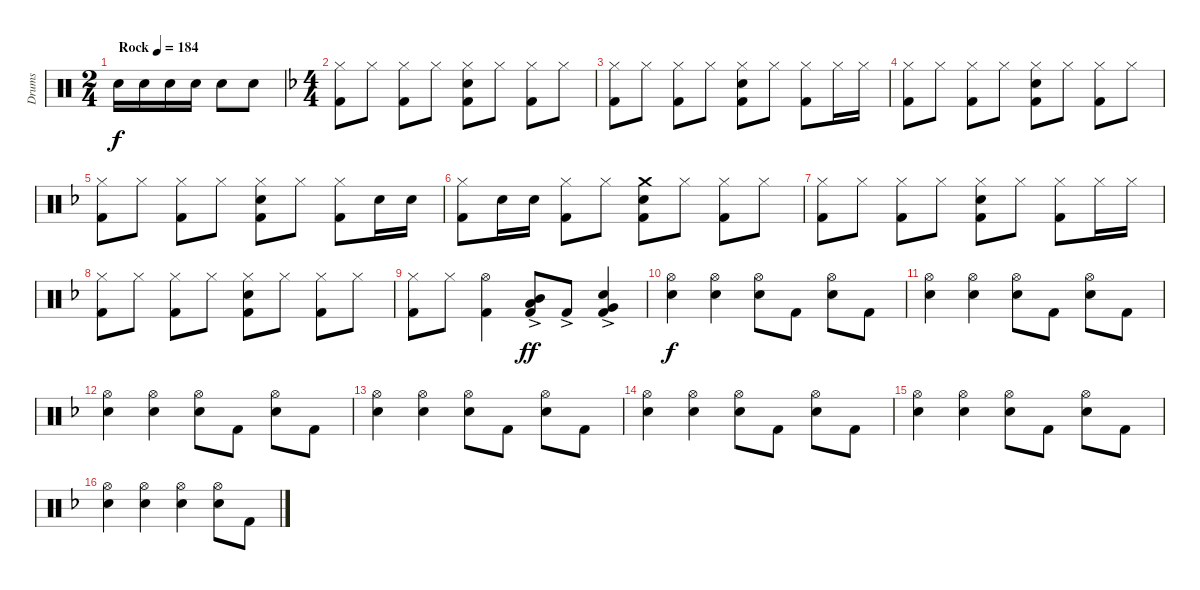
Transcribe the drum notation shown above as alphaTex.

\track ("Drums" "Drums") {instrument percussion}
\staff {score}
\articulation defaults
\ts (2 4)
\tempo (184 "Rock")
\clef neutral
\ks c "Electric Snare (hit)".16{dy f} "Electric Snare (hit)".16 "Electric Snare (hit)".16 "Electric Snare (hit)".16 "Electric Snare (hit)".8 "Electric Snare (hit)".8
|
\ts (4 4)
\ks f
("Hi-Hat (closed)" "Kick (hit) 2").8 "Hi-Hat (closed)".8 ("Hi-Hat (closed)" "Kick (hit) 2").8 "Hi-Hat (closed)".8 ("Hi-Hat (closed)" "Electric Snare (hit)" "Kick (hit) 2").8 "Hi-Hat (closed)".8 ("Hi-Hat (closed)" "Kick (hit) 2").8 "Hi-Hat (closed)".8 |
("Hi-Hat (closed)" "Kick (hit) 2").8 "Hi-Hat (closed)".8 ("Hi-Hat (closed)" "Kick (hit) 2").8 "Hi-Hat (closed)".8 ("Hi-Hat (closed)" "Electric Snare (hit)" "Kick (hit) 2").8 "Hi-Hat (closed)".8 ("Hi-Hat (closed)" "Kick (hit) 2").8 "Hi-Hat (closed)".16 "Hi-Hat (closed)".16 |
("Hi-Hat (closed)" "Kick (hit) 2").8 "Hi-Hat (closed)".8 ("Hi-Hat (closed)" "Kick (hit) 2").8 "Hi-Hat (closed)".8 ("Hi-Hat (closed)" "Electric Snare (hit)" "Kick (hit) 2").8 "Hi-Hat (closed)".8 ("Hi-Hat (closed)" "Kick (hit) 2").8 "Hi-Hat (closed)".8 |
("Hi-Hat (closed)" "Kick (hit) 2").8 "Hi-Hat (closed)".8 ("Hi-Hat (closed)" "Kick (hit) 2").8 "Hi-Hat (closed)".8 ("Hi-Hat (closed)" "Electric Snare (hit)" "Kick (hit) 2").8 "Hi-Hat (closed)".8 ("Hi-Hat (closed)" "Kick (hit) 2").8 "Electric Snare (hit)".16 "Electric Snare (hit)".16 |
("Hi-Hat (closed)" "Kick (hit) 2").8 "Electric Snare (hit)".16 "Electric Snare (hit)".16 ("Hi-Hat (closed)" "Kick (hit) 2").8 "Hi-Hat (closed)".8 ("Crash medium (hit)" "Electric Snare (hit)" "Kick (hit) 2").8 "Hi-Hat (closed)".8 ("Hi-Hat (closed)" "Kick (hit) 2").8 "Hi-Hat (closed)".8 |
("Hi-Hat (closed)" "Kick (hit) 2").8 "Hi-Hat (closed)".8 ("Hi-Hat (closed)" "Kick (hit) 2").8 "Hi-Hat (closed)".8 ("Hi-Hat (closed)" "Electric Snare (hit)" "Kick (hit) 2").8 "Hi-Hat (closed)".8 ("Hi-Hat (closed)" "Kick (hit) 2").8 "Hi-Hat (closed)".16 "Hi-Hat (closed)".16 |
("Hi-Hat (closed)" "Kick (hit) 2").8 "Hi-Hat (closed)".8 ("Hi-Hat (closed)" "Kick (hit) 2").8 "Hi-Hat (closed)".8 ("Hi-Hat (closed)" "Electric Snare (hit)" "Kick (hit) 2").8 "Hi-Hat (closed)".8 ("Hi-Hat (closed)" "Kick (hit) 2").8 "Hi-Hat (closed)".8 |
("Hi-Hat (closed)" "Kick (hit) 2").8 "Hi-Hat (closed)".8 ("Hi-Hat (open)" "Kick (hit) 2").4 ("Mid Tom (hit)"{ac} "Low Tom (hit)"{ac} "Kick (hit) 2"{ac}).8{dy ff} "Kick (hit) 2"{ac}.8 ("Electric Snare (hit)" "Very Low Tom (hit)"{ac} "Kick (hit) 2"{ac}).4 |
("Hi-Hat (open)" "Electric Snare (hit)").4{dy f} ("Hi-Hat (open)" "Electric Snare (hit)").4 ("Hi-Hat (open)" "Electric Snare (hit)").8 "Kick (hit) 2".8 ("Hi-Hat (open)" "Electric Snare (hit)").8 "Kick (hit) 2".8 |
("Hi-Hat (open)" "Electric Snare (hit)").4 ("Hi-Hat (open)" "Electric Snare (hit)").4 ("Hi-Hat (open)" "Electric Snare (hit)").8 "Kick (hit) 2".8 ("Hi-Hat (open)" "Electric Snare (hit)").8 "Kick (hit) 2".8 |
("Hi-Hat (open)" "Electric Snare (hit)").4 ("Hi-Hat (open)" "Electric Snare (hit)").4 ("Hi-Hat (open)" "Electric Snare (hit)").8 "Kick (hit) 2".8 ("Hi-Hat (open)" "Electric Snare (hit)").8 "Kick (hit) 2".8 |
("Hi-Hat (open)" "Electric Snare (hit)").4 ("Hi-Hat (open)" "Electric Snare (hit)").4 ("Hi-Hat (open)" "Electric Snare (hit)").8 "Kick (hit) 2".8 ("Hi-Hat (open)" "Electric Snare (hit)").8 "Kick (hit) 2".8 |
("Hi-Hat (open)" "Electric Snare (hit)").4 ("Hi-Hat (open)" "Electric Snare (hit)").4 ("Hi-Hat (open)" "Electric Snare (hit)").8 "Kick (hit) 2".8 ("Hi-Hat (open)" "Electric Snare (hit)").8 "Kick (hit) 2".8 |
("Hi-Hat (open)" "Electric Snare (hit)").4 ("Hi-Hat (open)" "Electric Snare (hit)").4 ("Hi-Hat (open)" "Electric Snare (hit)").8 "Kick (hit) 2".8 ("Hi-Hat (open)" "Electric Snare (hit)").8 "Kick (hit) 2".8 |
("Hi-Hat (open)" "Electric Snare (hit)").4 ("Hi-Hat (open)" "Electric Snare (hit)").4 ("Hi-Hat (open)" "Electric Snare (hit)").4 ("Hi-Hat (open)" "Electric Snare (hit)").8 "Kick (hit) 2".8
